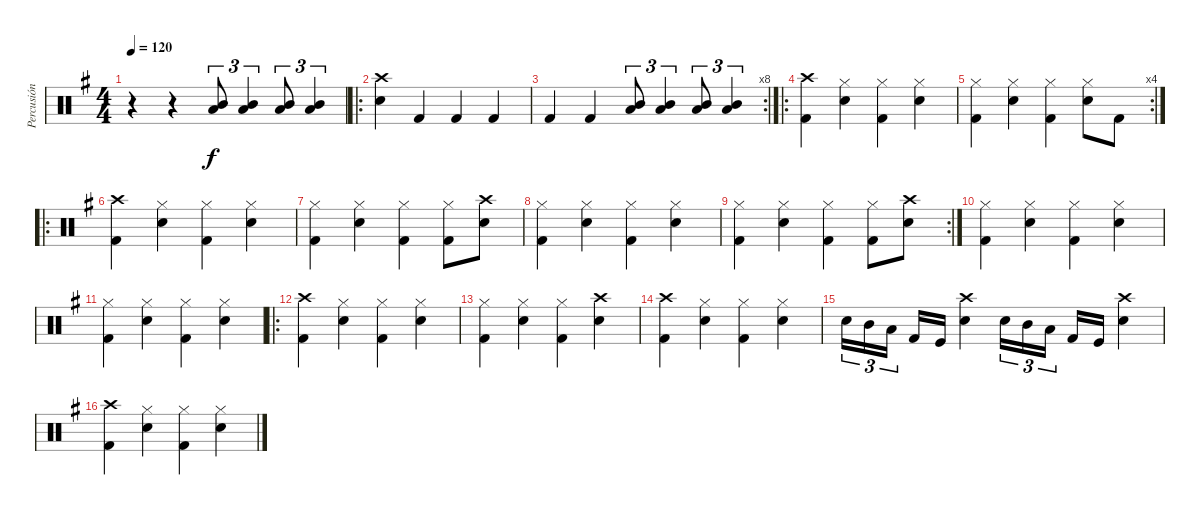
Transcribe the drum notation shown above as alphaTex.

\track ("Percusión" "Percusión") {instrument percussion}
\staff {score}
\articulation defaults
\ts (4 4)
\tempo 120
\clef neutral
\ks g
r.4{dy f} r.4 ("Low Tom (hit)" "Mid Tom (hit)").8{tu (3 2)} ("Low Tom (hit)" "Mid Tom (hit)").4{tu (3 2)} ("Low Tom (hit)" "Mid Tom (hit)").8{tu (3 2)} ("Low Tom (hit)" "Mid Tom (hit)").4{tu (3 2)} |
\ro
("Crash high (hit)" "Snare (hit) 2").4 "Kick (hit) 2".4 "Kick (hit) 2".4 "Kick (hit) 2".4 |
\rc 8 "Kick (hit) 2".4 "Kick (hit) 2".4
("Low Tom (hit)" "Mid Tom (hit)").8{tu (3 2)} ("Low Tom (hit)" "Mid Tom (hit)").4{tu (3 2)} ("Low Tom (hit)" "Mid Tom (hit)").8{tu (3 2)} ("Low Tom (hit)" "Mid Tom (hit)").4{tu (3 2)} |
\ro
("Crash high (hit)" "Kick (hit) 2").4 ("Hi-Hat (closed)" "Snare (hit) 2").4 ("Hi-Hat (closed)" "Kick (hit) 2").4 ("Hi-Hat (closed)" "Snare (hit) 2").4 |
\rc 4
("Hi-Hat (closed)" "Kick (hit) 2").4 ("Hi-Hat (closed)" "Snare (hit) 2").4 ("Hi-Hat (closed)" "Kick (hit) 2").4 ("Hi-Hat (closed)" "Snare (hit) 2").8 "Kick (hit) 2".8 |
\ro
("Crash high (hit)" "Kick (hit) 2").4 ("Hi-Hat (closed)" "Snare (hit) 2").4 ("Hi-Hat (closed)" "Kick (hit) 2").4 ("Hi-Hat (closed)" "Snare (hit) 2").4 |
("Hi-Hat (closed)" "Kick (hit) 2").4 ("Hi-Hat (closed)" "Snare (hit) 2").4 ("Hi-Hat (closed)" "Kick (hit) 2").4 ("Hi-Hat (closed)" "Kick (hit) 2").8 ("Crash high (hit)" "Snare (hit) 2").8 |
("Hi-Hat (closed)" "Kick (hit) 2").4 ("Hi-Hat (closed)" "Snare (hit) 2").4 ("Hi-Hat (closed)" "Kick (hit) 2").4 ("Hi-Hat (closed)" "Snare (hit) 2").4 |
\rc 2
("Hi-Hat (closed)" "Kick (hit) 2").4 ("Hi-Hat (closed)" "Snare (hit) 2").4 ("Hi-Hat (closed)" "Kick (hit) 2").4 ("Hi-Hat (closed)" "Kick (hit) 2").8 ("Crash high (hit)" "Snare (hit) 2").8 |
("Hi-Hat (closed)" "Kick (hit) 2").4 ("Hi-Hat (closed)" "Snare (hit) 2").4 ("Hi-Hat (closed)" "Kick (hit) 2").4 ("Hi-Hat (closed)" "Snare (hit) 2").4 |
("Hi-Hat (closed)" "Kick (hit) 2").4 ("Hi-Hat (closed)" "Snare (hit) 2").4 ("Hi-Hat (closed)" "Kick (hit) 2").4 ("Hi-Hat (closed)" "Snare (hit) 2").4 |
\ro
("Crash high (hit)" "Kick (hit) 2").4 ("Hi-Hat (closed)" "Snare (hit) 2").4 ("Hi-Hat (closed)" "Kick (hit) 2").4 ("Hi-Hat (closed)" "Snare (hit) 2").4 |
("Hi-Hat (closed)" "Kick (hit) 2").4 ("Hi-Hat (closed)" "Snare (hit) 2").4 ("Hi-Hat (closed)" "Kick (hit) 2").4 ("Crash high (hit)" "Snare (hit) 2").4 |
("Crash high (hit)" "Kick (hit) 2").4 ("Hi-Hat (closed)" "Snare (hit) 2").4 ("Hi-Hat (closed)" "Kick (hit) 2").4 ("Hi-Hat (closed)" "Snare (hit) 2").4 |
"Snare (hit) 2".16{tu (3 2)} "Mid Tom (hit)".16{tu (3 2)} "Low Floor Tom (hit)".16{tu (3 2) beam splitsecondary} "Kick (hit) 2".16 "Kick (hit)".16 ("Crash high (hit)" "Snare (hit) 2").4 "Snare (hit) 2".16{tu (3 2)} "Mid Tom (hit)".16{tu (3 2)} "Low Floor Tom (hit)".16{tu (3 2) beam splitsecondary} "Kick (hit) 2".16 "Kick (hit)".16 ("Crash high (hit)" "Snare (hit) 2").4 |
("Crash high (hit)" "Kick (hit) 2").4 ("Hi-Hat (closed)" "Snare (hit) 2").4 ("Hi-Hat (closed)" "Kick (hit) 2").4 ("Hi-Hat (closed)" "Snare (hit) 2").4
